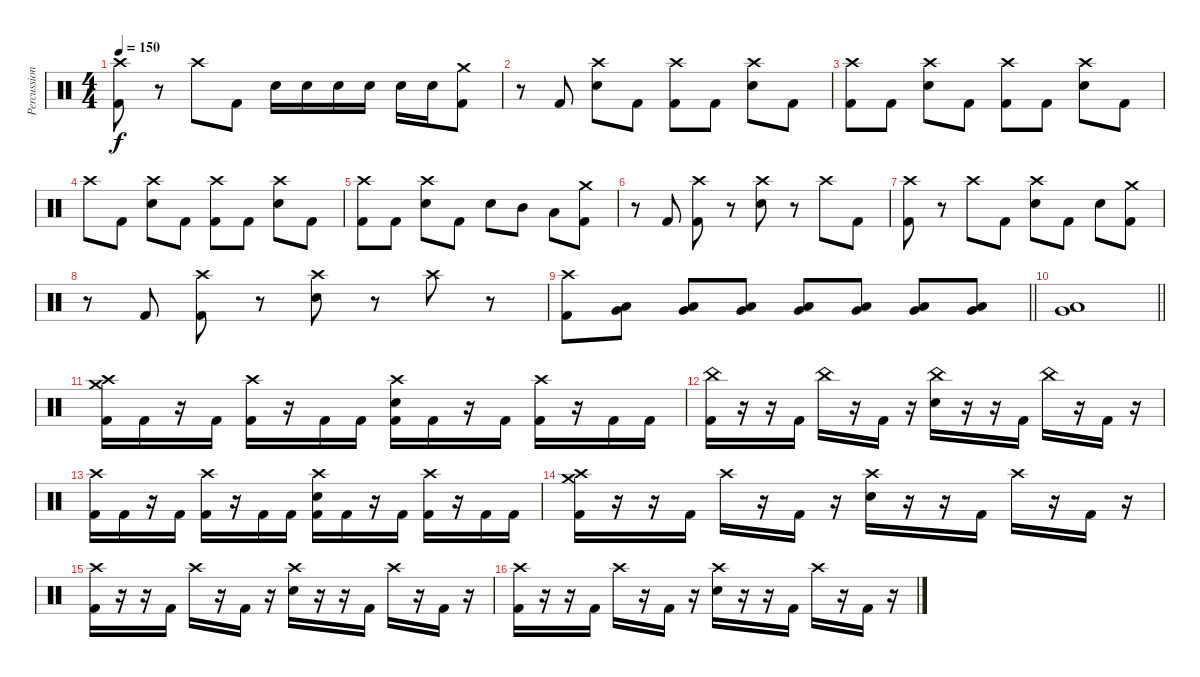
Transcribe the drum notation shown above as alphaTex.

\track ("Percussion" "Percussion") {instrument percussion}
\staff {score}
\articulation defaults
\ts (4 4)
\tempo 150
\clef neutral
\ks c
("Crash high (hit)" "Kick (hit) 2").8{dy f} r.8 "Crash high (hit)".8 "Kick (hit) 2".8 "Snare (hit) 2".16 "Snare (hit) 2".16 "Snare (hit) 2".16 "Snare (hit) 2".16 "Snare (hit) 2".16 "Snare (hit) 2".16 ("Crash medium (hit)" "Kick (hit) 2").8 |
r.8 "Kick (hit) 2".8 ("Crash high (hit)" "Snare (hit) 2").8 "Kick (hit) 2".8 ("Crash high (hit)" "Kick (hit) 2").8 "Kick (hit) 2".8 ("Crash high (hit)" "Snare (hit) 2").8 "Kick (hit) 2".8 |
("Crash high (hit)" "Kick (hit) 2").8 "Kick (hit) 2".8 ("Crash high (hit)" "Snare (hit) 2").8 "Kick (hit) 2".8 ("Crash high (hit)" "Kick (hit) 2").8 "Kick (hit) 2".8 ("Crash high (hit)" "Snare (hit) 2").8 "Kick (hit) 2".8 |
"Crash high (hit)".8 "Kick (hit) 2".8 ("Crash high (hit)" "Snare (hit) 2").8 "Kick (hit) 2".8 ("Crash high (hit)" "Kick (hit) 2").8 "Kick (hit) 2".8 ("Crash high (hit)" "Snare (hit) 2").8 "Kick (hit) 2".8 |
("Crash high (hit)" "Kick (hit) 2").8 "Kick (hit) 2".8 ("Crash high (hit)" "Snare (hit) 2").8 "Kick (hit) 2".8 "Snare (hit) 2".8 "Mid Tom (hit)".8 "Low Tom (hit)".8 ("Crash medium (hit)" "Kick (hit) 2").8 |
r.8 "Kick (hit) 2".8 ("Crash high (hit)" "Kick (hit) 2").8 r.8 ("Crash high (hit)" "Snare (hit) 2").8 r.8 "Crash high (hit)".8 "Kick (hit) 2".8 |
("Crash high (hit)" "Kick (hit) 2").8 r.8 "Crash high (hit)".8 "Kick (hit) 2".8 ("Crash high (hit)" "Snare (hit) 2").8 "Kick (hit) 2".8 "Snare (hit) 2".8 ("Crash medium (hit)" "Kick (hit) 2").8 |
r.8 "Kick (hit) 2".8 ("Crash high (hit)" "Kick (hit) 2").8 r.8 ("Crash high (hit)" "Snare (hit) 2").8 r.8 "Crash high (hit)".8 r.8 |
\barLineRight lightlight
("Crash high (hit)" "Kick (hit) 2").8 ("Low Tom (hit)" "Very Low Tom (hit)").8 ("Low Tom (hit)" "Very Low Tom (hit)").8 ("Low Tom (hit)" "Very Low Tom (hit)").8 ("Low Tom (hit)" "Very Low Tom (hit)").8 ("Low Tom (hit)" "Very Low Tom (hit)").8 ("Low Tom (hit)" "Very Low Tom (hit)").8 ("Low Tom (hit)" "Very Low Tom (hit)").8 |
\barLineRight lightlight
("Low Tom (hit)" "Very Low Tom (hit)").1 |
\section ("" "")
("Crash high (hit)" "Crash medium (hit)" "Kick (hit) 2").16 "Kick (hit) 2".16 r.16 "Kick (hit) 2".16 ("Crash high (hit)" "Kick (hit) 2").16 r.16 "Kick (hit) 2".16 "Kick (hit) 2".16 ("Crash high (hit)" "Snare (hit) 2" "Kick (hit) 2").16 "Kick (hit) 2".16 r.16 "Kick (hit) 2".16 ("Crash high (hit)" "Kick (hit) 2").16 r.16 "Kick (hit) 2".16 "Kick (hit) 2".16 |
("China (hit)" "Kick (hit) 2").16 r.16 r.16 "Kick (hit) 2".16 "China (hit)".16 r.16 "Kick (hit) 2".16 r.16 ("China (hit)" "Snare (hit) 2").16 r.16 r.16 "Kick (hit) 2".16 "China (hit)".16 r.16 "Kick (hit) 2".16 r.16 |
("Crash high (hit)" "Kick (hit) 2").16 "Kick (hit) 2".16 r.16 "Kick (hit) 2".16 ("Crash high (hit)" "Kick (hit) 2").16 r.16 "Kick (hit) 2".16 "Kick (hit) 2".16 ("Crash high (hit)" "Snare (hit) 2" "Kick (hit) 2").16 "Kick (hit) 2".16 r.16 "Kick (hit) 2".16 ("Crash high (hit)" "Kick (hit) 2").16 r.16 "Kick (hit) 2".16 "Kick (hit) 2".16 |
("Crash high (hit)" "Crash medium (hit)" "Kick (hit) 2").16 r.16 r.16 "Kick (hit) 2".16 "Crash high (hit)".16 r.16 "Kick (hit) 2".16 r.16 ("Crash high (hit)" "Snare (hit) 2").16 r.16 r.16 "Kick (hit) 2".16 "Crash high (hit)".16 r.16 "Kick (hit) 2".16 r.16 |
("Crash high (hit)" "Kick (hit) 2").16 r.16 r.16 "Kick (hit) 2".16 "Crash high (hit)".16 r.16 "Kick (hit) 2".16 r.16 ("Crash high (hit)" "Snare (hit) 2").16 r.16 r.16 "Kick (hit) 2".16 "Crash high (hit)".16 r.16 "Kick (hit) 2".16 r.16 |
("Crash high (hit)" "Kick (hit) 2").16 r.16 r.16 "Kick (hit) 2".16 "Crash high (hit)".16 r.16 "Kick (hit) 2".16 r.16 ("Crash high (hit)" "Snare (hit) 2").16 r.16 r.16 "Kick (hit) 2".16 "Crash high (hit)".16 r.16 "Kick (hit) 2".16 r.16
